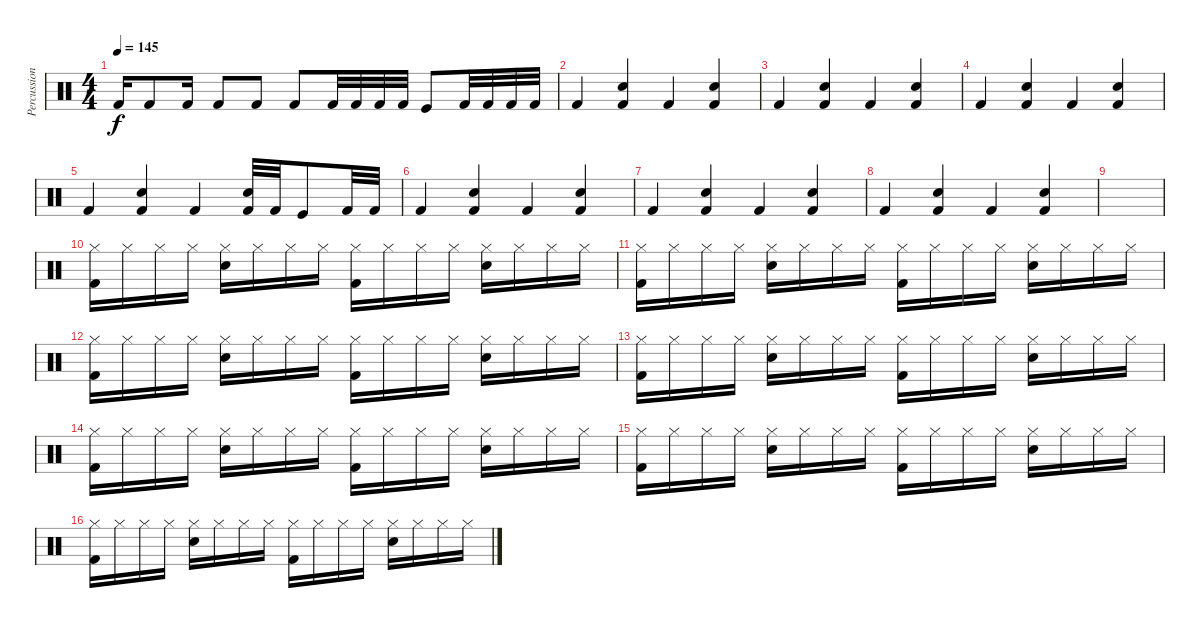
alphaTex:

\track ("Percussion" "Percussion") {instrument percussion}
\staff {score}
\articulation defaults
\ts (4 4)
\tempo 145
\clef neutral
\ks c "Kick (hit) 2".16{dy f} "Kick (hit) 2".8 "Kick (hit) 2".16 "Kick (hit) 2".8 "Kick (hit) 2".8 "Kick (hit) 2".8 "Kick (hit) 2".32 "Kick (hit) 2".32 "Kick (hit) 2".32 "Kick (hit) 2".32 "Kick (hit)".8 "Kick (hit) 2".32 "Kick (hit) 2".32 "Kick (hit) 2".32 "Kick (hit) 2".32
|
"Kick (hit) 2".4 ("Electric Snare (hit)" "Kick (hit) 2").4 "Kick (hit) 2".4 ("Electric Snare (hit)" "Kick (hit) 2").4 |
"Kick (hit) 2".4 ("Electric Snare (hit)" "Kick (hit) 2").4 "Kick (hit) 2".4 ("Electric Snare (hit)" "Kick (hit) 2").4 |
"Kick (hit) 2".4 ("Electric Snare (hit)" "Kick (hit) 2").4 "Kick (hit) 2".4 ("Electric Snare (hit)" "Kick (hit) 2").4 |
"Kick (hit) 2".4 ("Electric Snare (hit)" "Kick (hit) 2").4 "Kick (hit) 2".4 ("Electric Snare (hit)" "Kick (hit) 2").32 "Kick (hit) 2".32 "Kick (hit)".8 "Kick (hit) 2".32 "Kick (hit) 2".32 |
"Kick (hit) 2".4 ("Electric Snare (hit)" "Kick (hit) 2").4 "Kick (hit) 2".4 ("Electric Snare (hit)" "Kick (hit) 2").4 |
"Kick (hit) 2".4 ("Electric Snare (hit)" "Kick (hit) 2").4 "Kick (hit) 2".4 ("Electric Snare (hit)" "Kick (hit) 2").4 |
"Kick (hit) 2".4 ("Electric Snare (hit)" "Kick (hit) 2").4 "Kick (hit) 2".4 ("Electric Snare (hit)" "Kick (hit) 2").4 |
|
("Hi-Hat (closed)" "Kick (hit) 2").16 "Hi-Hat (closed)".16 "Hi-Hat (closed)".16 "Hi-Hat (closed)".16 ("Hi-Hat (closed)" "Electric Snare (hit)").16 "Hi-Hat (closed)".16 "Hi-Hat (closed)".16 "Hi-Hat (closed)".16 ("Hi-Hat (closed)" "Kick (hit) 2").16 "Hi-Hat (closed)".16 "Hi-Hat (closed)".16 "Hi-Hat (closed)".16 ("Hi-Hat (closed)" "Electric Snare (hit)").16 "Hi-Hat (closed)".16 "Hi-Hat (closed)".16 "Hi-Hat (closed)".16 |
("Hi-Hat (closed)" "Kick (hit) 2").16 "Hi-Hat (closed)".16 "Hi-Hat (closed)".16 "Hi-Hat (closed)".16 ("Hi-Hat (closed)" "Electric Snare (hit)").16 "Hi-Hat (closed)".16 "Hi-Hat (closed)".16 "Hi-Hat (closed)".16 ("Hi-Hat (closed)" "Kick (hit) 2").16 "Hi-Hat (closed)".16 "Hi-Hat (closed)".16 "Hi-Hat (closed)".16 ("Hi-Hat (closed)" "Electric Snare (hit)").16 "Hi-Hat (closed)".16 "Hi-Hat (closed)".16 "Hi-Hat (closed)".16 |
("Hi-Hat (closed)" "Kick (hit) 2").16 "Hi-Hat (closed)".16 "Hi-Hat (closed)".16 "Hi-Hat (closed)".16 ("Hi-Hat (closed)" "Electric Snare (hit)").16 "Hi-Hat (closed)".16 "Hi-Hat (closed)".16 "Hi-Hat (closed)".16 ("Hi-Hat (closed)" "Kick (hit) 2").16 "Hi-Hat (closed)".16 "Hi-Hat (closed)".16 "Hi-Hat (closed)".16 ("Hi-Hat (closed)" "Electric Snare (hit)").16 "Hi-Hat (closed)".16 "Hi-Hat (closed)".16 "Hi-Hat (closed)".16 |
("Hi-Hat (closed)" "Kick (hit) 2").16 "Hi-Hat (closed)".16 "Hi-Hat (closed)".16 "Hi-Hat (closed)".16 ("Hi-Hat (closed)" "Electric Snare (hit)").16 "Hi-Hat (closed)".16 "Hi-Hat (closed)".16 "Hi-Hat (closed)".16 ("Hi-Hat (closed)" "Kick (hit) 2").16 "Hi-Hat (closed)".16 "Hi-Hat (closed)".16 "Hi-Hat (closed)".16 ("Hi-Hat (closed)" "Electric Snare (hit)").16 "Hi-Hat (closed)".16 "Hi-Hat (closed)".16 "Hi-Hat (closed)".16 |
("Hi-Hat (closed)" "Kick (hit) 2").16 "Hi-Hat (closed)".16 "Hi-Hat (closed)".16 "Hi-Hat (closed)".16 ("Hi-Hat (closed)" "Electric Snare (hit)").16 "Hi-Hat (closed)".16 "Hi-Hat (closed)".16 "Hi-Hat (closed)".16 ("Hi-Hat (closed)" "Kick (hit) 2").16 "Hi-Hat (closed)".16 "Hi-Hat (closed)".16 "Hi-Hat (closed)".16 ("Hi-Hat (closed)" "Electric Snare (hit)").16 "Hi-Hat (closed)".16 "Hi-Hat (closed)".16 "Hi-Hat (closed)".16 |
("Hi-Hat (closed)" "Kick (hit) 2").16 "Hi-Hat (closed)".16 "Hi-Hat (closed)".16 "Hi-Hat (closed)".16 ("Hi-Hat (closed)" "Electric Snare (hit)").16 "Hi-Hat (closed)".16 "Hi-Hat (closed)".16 "Hi-Hat (closed)".16 ("Hi-Hat (closed)" "Kick (hit) 2").16 "Hi-Hat (closed)".16 "Hi-Hat (closed)".16 "Hi-Hat (closed)".16 ("Hi-Hat (closed)" "Electric Snare (hit)").16 "Hi-Hat (closed)".16 "Hi-Hat (closed)".16 "Hi-Hat (closed)".16 |
("Hi-Hat (closed)" "Kick (hit) 2").16 "Hi-Hat (closed)".16 "Hi-Hat (closed)".16 "Hi-Hat (closed)".16 ("Hi-Hat (closed)" "Electric Snare (hit)").16 "Hi-Hat (closed)".16 "Hi-Hat (closed)".16 "Hi-Hat (closed)".16 ("Hi-Hat (closed)" "Kick (hit) 2").16 "Hi-Hat (closed)".16 "Hi-Hat (closed)".16 "Hi-Hat (closed)".16 ("Hi-Hat (closed)" "Electric Snare (hit)").16 "Hi-Hat (closed)".16 "Hi-Hat (closed)".16 "Hi-Hat (closed)".16
